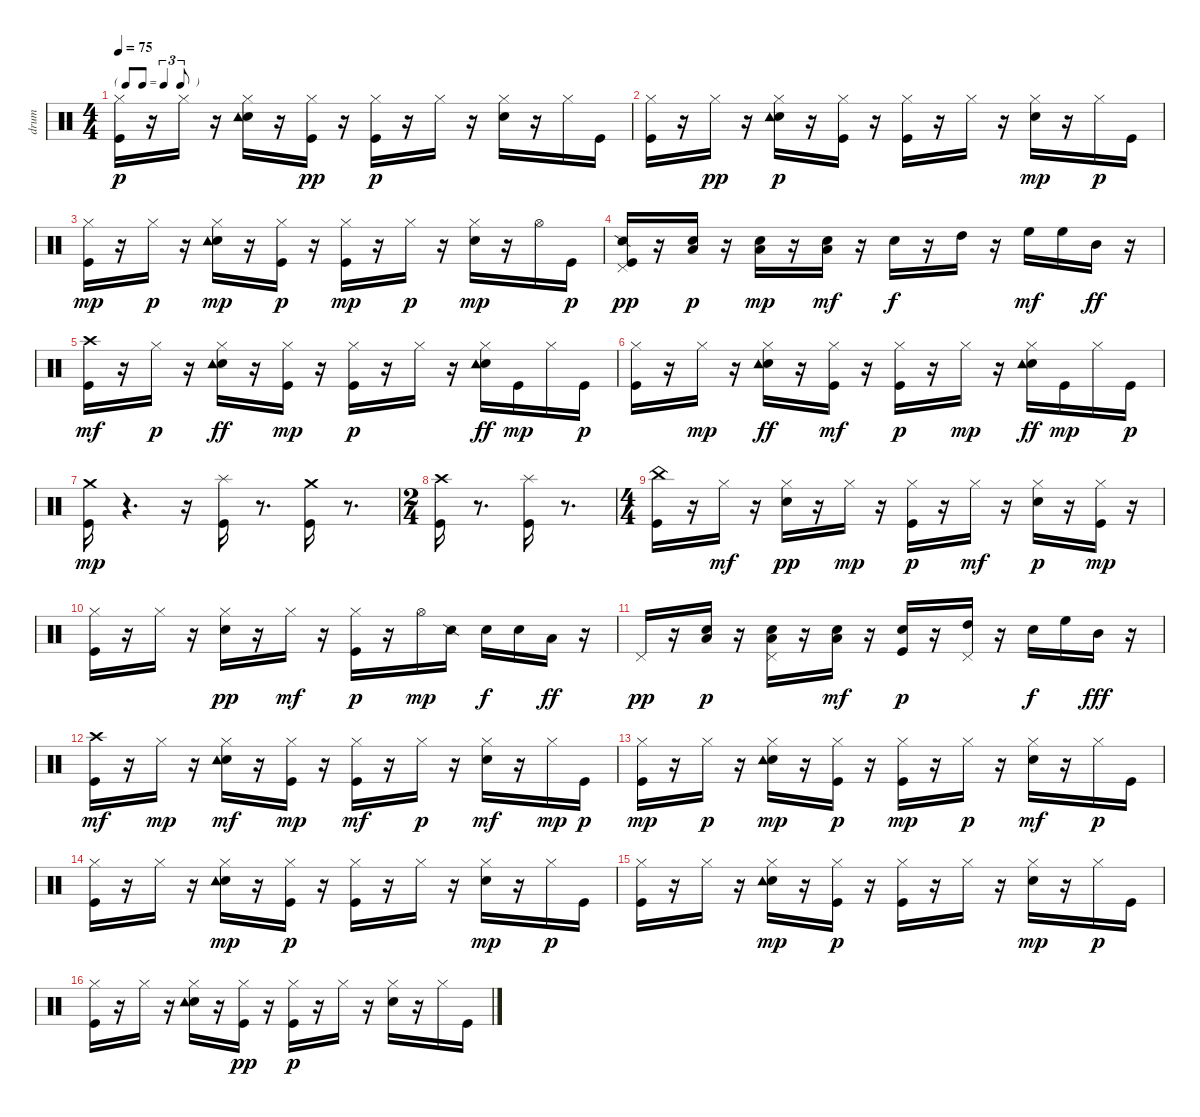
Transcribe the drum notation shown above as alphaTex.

\track ("drum" "drum") {instrument percussion}
\staff {score}
\articulation defaults
\ts (4 4)
\tf triplet8th
\tempo 75
\clef neutral
\ks c
("Hi-Hat (closed)" "Kick (hit)").16{dy p} r.16 "Hi-Hat (closed)".16 r.16 ("Hi-Hat (closed)" "Snare (hit) 2" "Tambourine (hit)").16 r.16 ("Hi-Hat (closed)" "Kick (hit)").16{dy pp} r.16 ("Hi-Hat (closed)" "Kick (hit)").16{dy p} r.16 "Hi-Hat (closed)".16 r.16 ("Hi-Hat (closed)" "Snare (hit) 2").16 r.16 "Hi-Hat (closed)".16 "Kick (hit)".16 |
("Hi-Hat (closed)" "Kick (hit)").16 r.16 "Hi-Hat (closed)".16{dy pp} r.16 ("Hi-Hat (closed)" "Snare (hit) 2" "Tambourine (hit)").16{dy p} r.16 ("Hi-Hat (closed)" "Kick (hit)").16 r.16 ("Hi-Hat (closed)" "Kick (hit)").16 r.16 "Hi-Hat (closed)".16 r.16 ("Hi-Hat (closed)" "Snare (hit) 2").16{dy mp} r.16 "Hi-Hat (closed)".16{dy p} "Kick (hit)".16 |
("Hi-Hat (closed)" "Kick (hit)").16{dy mp} r.16 "Hi-Hat (closed)".16{dy p} r.16 ("Hi-Hat (closed)" "Snare (hit) 2" "Tambourine (hit)").16{dy mp} r.16 ("Hi-Hat (closed)" "Kick (hit)").16{dy p} r.16 ("Hi-Hat (closed)" "Kick (hit)").16{dy mp} r.16 "Hi-Hat (closed)".16{dy p} r.16 ("Hi-Hat (closed)" "Snare (hit) 2").16{dy mp} r.16 "Hi-Hat (open)".16 "Kick (hit)".16{dy p} |
("Snare (side stick) 2" "Kick (hit)" "Pedal Hi-Hat (hit)").16{dy pp} r.16 ("Snare (hit) 2" "Low Floor Tom (hit)").16{dy p} r.16 ("Snare (hit) 2" "Low Floor Tom (hit)").16{dy mp} r.16 ("Snare (hit) 2" "Low Floor Tom (hit)").16{dy mf} r.16 "Snare (hit) 2".16{dy f} r.16 "High Tom (hit)".16 r.16 "High Floor Tom (hit)".16{dy mf} "High Floor Tom (hit)".16 "Mid Tom (hit)".16{dy ff} r.16 |
("Crash high (hit)" "Kick (hit)").16{dy mf} r.16 "Hi-Hat (closed)".16{dy p} r.16 ("Hi-Hat (closed)" "Snare (hit) 2" "Tambourine (hit)").16{dy ff} r.16 ("Hi-Hat (closed)" "Kick (hit)").16{dy mp} r.16 ("Hi-Hat (closed)" "Kick (hit)").16{dy p} r.16 "Hi-Hat (closed)".16 r.16 ("Hi-Hat (closed)" "Snare (hit) 2" "Tambourine (hit)").16{dy ff} "Kick (hit)".16{dy mp} "Hi-Hat (closed)".16 "Kick (hit)".16{dy p} |
("Hi-Hat (closed)" "Kick (hit)").16 r.16 "Hi-Hat (closed)".16{dy mp} r.16 ("Hi-Hat (closed)" "Snare (hit) 2" "Tambourine (hit)").16{dy ff} r.16 ("Hi-Hat (closed)" "Kick (hit)").16{dy mf} r.16 ("Hi-Hat (closed)" "Kick (hit)").16{dy p} r.16 "Hi-Hat (closed)".16{dy mp} r.16 ("Hi-Hat (closed)" "Snare (hit) 2" "Tambourine (hit)").16{dy ff} "Kick (hit)".16{dy mp} "Hi-Hat (closed)".16 "Kick (hit)".16{dy p} |
("Crash medium (hit)" "Kick (hit)").16{dy mp} r.4{d} r.16 ("Kick (hit)" "Splash (hit)").16 r.8{d} ("Crash medium (hit)" "Kick (hit)").16 r.8{d} |
\ts (2 4)
("Crash high (hit)" "Kick (hit)").16 r.8{d} ("Kick (hit)" "Splash (hit)").16 r.8{d} |
\ts (4 4)
("China (hit)" "Kick (hit)").16 r.16 "Hi-Hat (closed)".16{dy mf} r.16 ("Hi-Hat (closed)" "Snare (hit) 2").16{dy pp} r.16 "Hi-Hat (closed)".16{dy mp} r.16 ("Hi-Hat (closed)" "Kick (hit)").16{dy p} r.16 "Hi-Hat (closed)".16{dy mf} r.16 ("Hi-Hat (closed)" "Snare (hit) 2").16{dy p} r.16 ("Hi-Hat (closed)" "Kick (hit)").16{dy mp} r.16 |
("Hi-Hat (closed)" "Kick (hit)").16 r.16 "Hi-Hat (closed)".16 r.16 ("Hi-Hat (closed)" "Snare (hit) 2").16{dy pp} r.16 "Hi-Hat (closed)".16{dy mf} r.16 ("Hi-Hat (closed)" "Kick (hit)").16{dy p} r.16 "Hi-Hat (open)".16{dy mp} "Snare (side stick) 2".16 "Snare (hit) 2".16{dy f} "Snare (hit) 2".16 "Low Tom (hit)".16{dy ff} r.16 |
"Pedal Hi-Hat (hit)".16{dy pp} r.16 ("Snare (hit) 2" "Low Floor Tom (hit)").16{dy p} r.16 ("Snare (hit) 2" "Low Floor Tom (hit)" "Pedal Hi-Hat (hit)").16 r.16 ("Snare (hit) 2" "Low Floor Tom (hit)").16{dy mf} r.16 ("Kick (hit)" "Snare (hit) 2").16{dy p} r.16 ("Pedal Hi-Hat (hit)" "High Tom (hit)").16 r.16 "Snare (hit) 2".16{dy f} "High Floor Tom (hit)".16 "Mid Tom (hit)".16{dy fff} r.16 |
("Crash high (hit)" "Kick (hit)").16{dy mf} r.16 "Hi-Hat (closed)".16{dy mp} r.16 ("Hi-Hat (closed)" "Snare (hit) 2" "Tambourine (hit)").16{dy mf} r.16 ("Hi-Hat (closed)" "Kick (hit)").16{dy mp} r.16 ("Hi-Hat (closed)" "Kick (hit)").16{dy mf} r.16 "Hi-Hat (closed)".16{dy p} r.16 ("Hi-Hat (closed)" "Snare (hit) 2").16{dy mf} r.16 "Hi-Hat (closed)".16{dy mp} "Kick (hit)".16{dy p} |
("Hi-Hat (closed)" "Kick (hit)").16{dy mp} r.16 "Hi-Hat (closed)".16{dy p} r.16 ("Hi-Hat (closed)" "Snare (hit) 2" "Tambourine (hit)").16{dy mp} r.16 ("Hi-Hat (closed)" "Kick (hit)").16{dy p} r.16 ("Hi-Hat (closed)" "Kick (hit)").16{dy mp} r.16 "Hi-Hat (closed)".16{dy p} r.16 ("Hi-Hat (closed)" "Snare (hit) 2").16{dy mf} r.16 "Hi-Hat (closed)".16{dy p} "Kick (hit)".16 |
("Hi-Hat (closed)" "Kick (hit)").16 r.16 "Hi-Hat (closed)".16 r.16 ("Hi-Hat (closed)" "Snare (hit) 2" "Tambourine (hit)").16{dy mp} r.16 ("Hi-Hat (closed)" "Kick (hit)").16{dy p} r.16 ("Hi-Hat (closed)" "Kick (hit)").16 r.16 "Hi-Hat (closed)".16 r.16 ("Hi-Hat (closed)" "Snare (hit) 2").16{dy mp} r.16 "Hi-Hat (closed)".16{dy p} "Kick (hit)".16 |
("Hi-Hat (closed)" "Kick (hit)").16 r.16 "Hi-Hat (closed)".16 r.16 ("Hi-Hat (closed)" "Snare (hit) 2" "Tambourine (hit)").16{dy mp} r.16 ("Hi-Hat (closed)" "Kick (hit)").16{dy p} r.16 ("Hi-Hat (closed)" "Kick (hit)").16 r.16 "Hi-Hat (closed)".16 r.16 ("Hi-Hat (closed)" "Snare (hit) 2").16{dy mp} r.16 "Hi-Hat (closed)".16{dy p} "Kick (hit)".16 |
("Hi-Hat (closed)" "Kick (hit)").16 r.16 "Hi-Hat (closed)".16 r.16 ("Hi-Hat (closed)" "Snare (hit) 2" "Tambourine (hit)").16 r.16 ("Hi-Hat (closed)" "Kick (hit)").16{dy pp} r.16 ("Hi-Hat (closed)" "Kick (hit)").16{dy p} r.16 "Hi-Hat (closed)".16 r.16 ("Hi-Hat (closed)" "Snare (hit) 2").16 r.16 "Hi-Hat (closed)".16 "Kick (hit)".16
